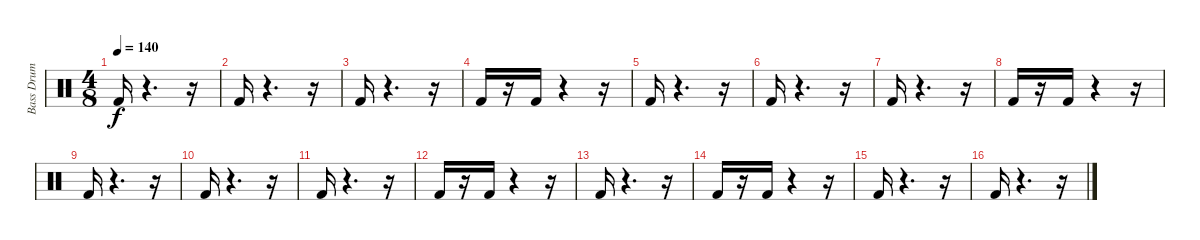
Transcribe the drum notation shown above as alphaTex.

\track ("Bass Drum" "Bass Drum") {instrument percussion}
\staff {score}
\articulation defaults
\ts (4 8)
\tempo 140
\clef neutral
\ks c "Kick (hit) 2".16{dy f}
r.4{d} r.16 |
"Kick (hit) 2".16 r.4{d} r.16 |
"Kick (hit) 2".16 r.4{d} r.16 |
"Kick (hit) 2".16 r.16 "Kick (hit) 2".16 r.4 r.16 |
"Kick (hit) 2".16 r.4{d} r.16 |
"Kick (hit) 2".16 r.4{d} r.16 |
"Kick (hit) 2".16 r.4{d} r.16 |
"Kick (hit) 2".16 r.16 "Kick (hit) 2".16 r.4 r.16 |
"Kick (hit) 2".16 r.4{d} r.16 |
"Kick (hit) 2".16 r.4{d} r.16 |
"Kick (hit) 2".16 r.4{d} r.16 |
"Kick (hit) 2".16 r.16 "Kick (hit) 2".16 r.4 r.16 |
"Kick (hit) 2".16 r.4{d} r.16 |
"Kick (hit) 2".16 r.16 "Kick (hit) 2".16 r.4 r.16 |
"Kick (hit) 2".16 r.4{d} r.16 |
"Kick (hit) 2".16 r.4{d} r.16
